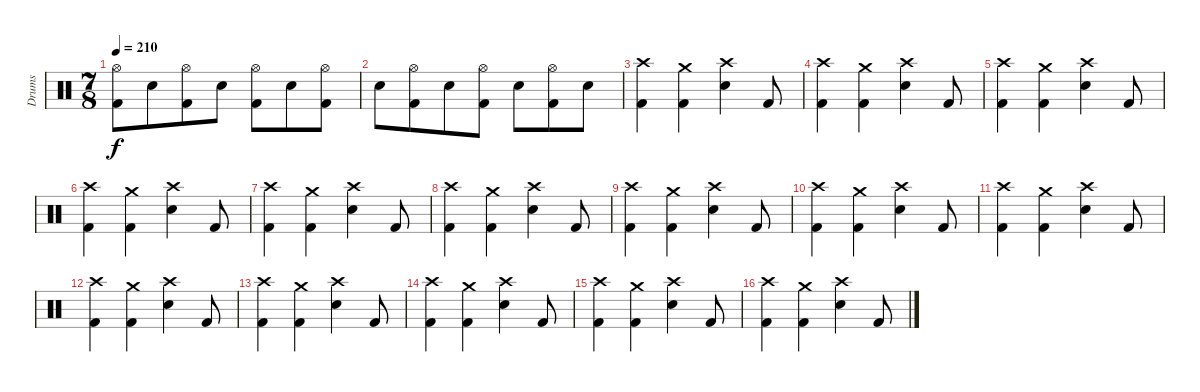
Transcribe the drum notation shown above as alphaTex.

\track ("Drums" "Drums") {instrument percussion}
\staff {score}
\articulation defaults
\ts (7 8)
\tempo 210
\clef neutral
\ks c
("Hi-Hat (open)" "Kick (hit) 2").8{dy f} "Electric Snare (hit)".8 ("Hi-Hat (open)" "Kick (hit) 2").8 "Electric Snare (hit)".8 ("Hi-Hat (open)" "Kick (hit) 2").8 "Electric Snare (hit)".8 ("Hi-Hat (open)" "Kick (hit) 2").8 |
"Electric Snare (hit)".8 ("Hi-Hat (open)" "Kick (hit) 2").8 "Electric Snare (hit)".8 ("Hi-Hat (open)" "Kick (hit) 2").8 "Electric Snare (hit)".8 ("Hi-Hat (open)" "Kick (hit) 2").8 "Electric Snare (hit)".8 |
("Crash high (hit)" "Kick (hit) 2").4 ("Crash medium (hit)" "Kick (hit) 2").4 ("Crash high (hit)" "Electric Snare (hit)").4 "Kick (hit) 2".8 |
("Crash high (hit)" "Kick (hit) 2").4 ("Crash medium (hit)" "Kick (hit) 2").4 ("Crash high (hit)" "Electric Snare (hit)").4 "Kick (hit) 2".8 |
("Crash high (hit)" "Kick (hit) 2").4 ("Crash medium (hit)" "Kick (hit) 2").4 ("Crash high (hit)" "Electric Snare (hit)").4 "Kick (hit) 2".8 |
("Crash high (hit)" "Kick (hit) 2").4 ("Crash medium (hit)" "Kick (hit) 2").4 ("Crash high (hit)" "Electric Snare (hit)").4 "Kick (hit) 2".8 |
("Crash high (hit)" "Kick (hit) 2").4 ("Crash medium (hit)" "Kick (hit) 2").4 ("Crash high (hit)" "Electric Snare (hit)").4 "Kick (hit) 2".8 |
("Crash high (hit)" "Kick (hit) 2").4 ("Crash medium (hit)" "Kick (hit) 2").4 ("Crash high (hit)" "Electric Snare (hit)").4 "Kick (hit) 2".8 |
("Crash high (hit)" "Kick (hit) 2").4 ("Crash medium (hit)" "Kick (hit) 2").4 ("Crash high (hit)" "Electric Snare (hit)").4 "Kick (hit) 2".8 |
("Crash high (hit)" "Kick (hit) 2").4 ("Crash medium (hit)" "Kick (hit) 2").4 ("Crash high (hit)" "Electric Snare (hit)").4 "Kick (hit) 2".8 |
("Crash high (hit)" "Kick (hit) 2").4 ("Crash medium (hit)" "Kick (hit) 2").4 ("Crash high (hit)" "Electric Snare (hit)").4 "Kick (hit) 2".8 |
("Crash high (hit)" "Kick (hit) 2").4 ("Crash medium (hit)" "Kick (hit) 2").4 ("Crash high (hit)" "Electric Snare (hit)").4 "Kick (hit) 2".8 |
("Crash high (hit)" "Kick (hit) 2").4 ("Crash medium (hit)" "Kick (hit) 2").4 ("Crash high (hit)" "Electric Snare (hit)").4 "Kick (hit) 2".8 |
("Crash high (hit)" "Kick (hit) 2").4 ("Crash medium (hit)" "Kick (hit) 2").4 ("Crash high (hit)" "Electric Snare (hit)").4 "Kick (hit) 2".8 |
("Crash high (hit)" "Kick (hit) 2").4 ("Crash medium (hit)" "Kick (hit) 2").4 ("Crash high (hit)" "Electric Snare (hit)").4 "Kick (hit) 2".8 |
("Crash high (hit)" "Kick (hit) 2").4 ("Crash medium (hit)" "Kick (hit) 2").4 ("Crash high (hit)" "Electric Snare (hit)").4 "Kick (hit) 2".8
